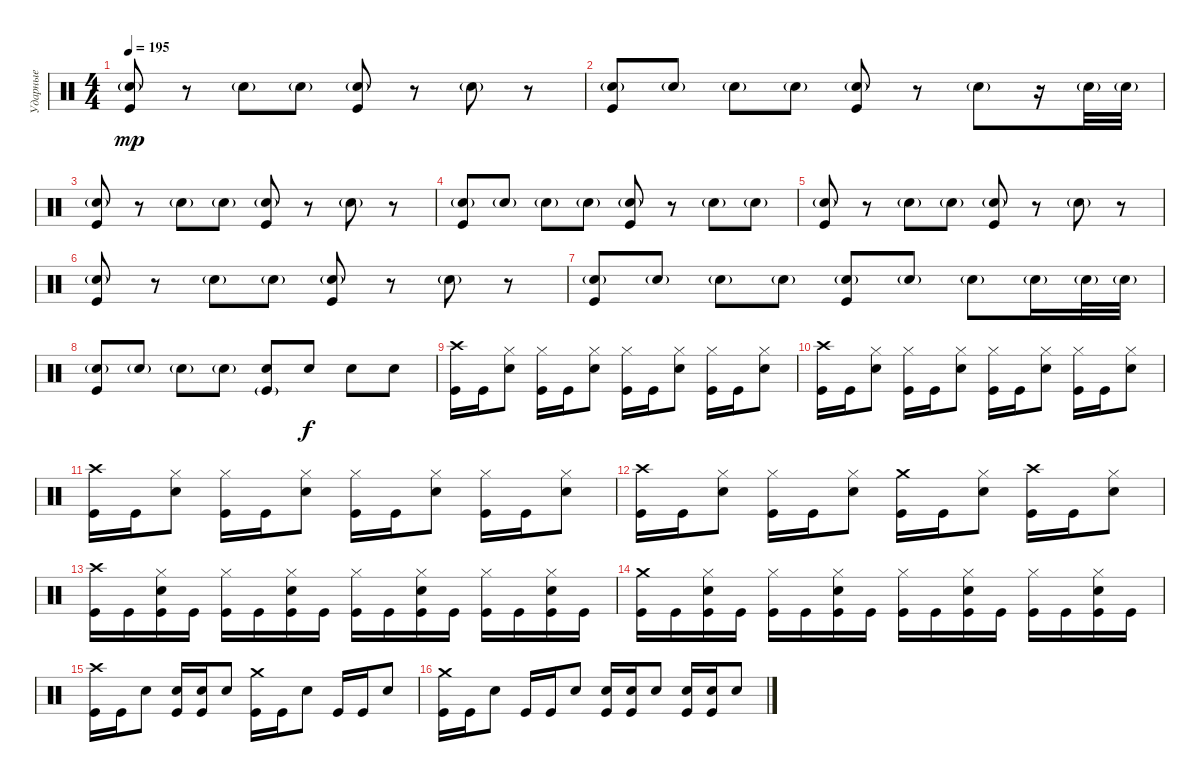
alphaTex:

\track ("Ударные" "Ударные") {instrument percussion}
\staff {score}
\articulation defaults
\ts (4 4)
\tempo 195
\clef neutral
\ks c
("Electric Snare (hit)"{g} "Kick (hit)").8{dy mp} r.8 "Electric Snare (hit)"{g}.8 "Electric Snare (hit)"{g}.8 ("Electric Snare (hit)"{g} "Kick (hit)").8 r.8 "Electric Snare (hit)"{g}.8 r.8 |
("Electric Snare (hit)"{g} "Kick (hit)").8 "Electric Snare (hit)"{g}.8 "Electric Snare (hit)"{g}.8 "Electric Snare (hit)"{g}.8 ("Electric Snare (hit)"{g} "Kick (hit)").8 r.8 "Electric Snare (hit)"{g}.8 r.16 "Electric Snare (hit)"{g}.32 "Electric Snare (hit)"{g}.32 |
("Electric Snare (hit)"{g} "Kick (hit)").8 r.8 "Electric Snare (hit)"{g}.8 "Electric Snare (hit)"{g}.8 ("Electric Snare (hit)"{g} "Kick (hit)").8 r.8 "Electric Snare (hit)"{g}.8 r.8 |
("Electric Snare (hit)"{g} "Kick (hit)").8 "Electric Snare (hit)"{g}.8 "Electric Snare (hit)"{g}.8 "Electric Snare (hit)"{g}.8 ("Electric Snare (hit)"{g} "Kick (hit)").8 r.8 "Electric Snare (hit)"{g}.8 "Electric Snare (hit)"{g}.8 |
("Electric Snare (hit)"{g} "Kick (hit)").8 r.8 "Electric Snare (hit)"{g}.8 "Electric Snare (hit)"{g}.8 ("Electric Snare (hit)"{g} "Kick (hit)").8 r.8 "Electric Snare (hit)"{g}.8 r.8 |
("Electric Snare (hit)"{g} "Kick (hit)").8 r.8 "Electric Snare (hit)"{g}.8 "Electric Snare (hit)"{g}.8 ("Electric Snare (hit)"{g} "Kick (hit)").8 r.8 "Electric Snare (hit)"{g}.8 r.8 |
("Electric Snare (hit)"{g} "Kick (hit)").8 "Electric Snare (hit)"{g}.8 "Electric Snare (hit)"{g}.8 "Electric Snare (hit)"{g}.8 ("Electric Snare (hit)"{g} "Kick (hit)").8 "Electric Snare (hit)"{g}.8 "Electric Snare (hit)"{g}.8 "Electric Snare (hit)"{g}.16 "Electric Snare (hit)"{g}.32 "Electric Snare (hit)"{g}.32 |
("Electric Snare (hit)"{g} "Kick (hit)").8 "Electric Snare (hit)"{g}.8 "Electric Snare (hit)"{g}.8 "Electric Snare (hit)"{g}.8 ("Electric Snare (hit)" "Kick (hit)"{g}).8 "Electric Snare (hit)".8{dy f} "Electric Snare (hit)".8 "Electric Snare (hit)".8 |
("Crash high (hit)" "Kick (hit)").16 "Kick (hit)".16 ("Hi-Hat (closed)" "Electric Snare (hit)").8 ("Hi-Hat (closed)" "Kick (hit)").16 "Kick (hit)".16 ("Hi-Hat (closed)" "Electric Snare (hit)").8 ("Hi-Hat (closed)" "Kick (hit)").16 "Kick (hit)".16 ("Hi-Hat (closed)" "Electric Snare (hit)").8 ("Hi-Hat (closed)" "Kick (hit)").16 "Kick (hit)".16 ("Hi-Hat (closed)" "Electric Snare (hit)").8 |
("Crash high (hit)" "Kick (hit)").16 "Kick (hit)".16 ("Hi-Hat (closed)" "Electric Snare (hit)").8 ("Hi-Hat (closed)" "Kick (hit)").16 "Kick (hit)".16 ("Hi-Hat (closed)" "Electric Snare (hit)").8 ("Hi-Hat (closed)" "Kick (hit)").16 "Kick (hit)".16 ("Hi-Hat (closed)" "Electric Snare (hit)").8 ("Hi-Hat (closed)" "Kick (hit)").16 "Kick (hit)".16 ("Hi-Hat (closed)" "Electric Snare (hit)").8 |
("Crash high (hit)" "Kick (hit)").16 "Kick (hit)".16 ("Hi-Hat (closed)" "Electric Snare (hit)").8 ("Hi-Hat (closed)" "Kick (hit)").16 "Kick (hit)".16 ("Hi-Hat (closed)" "Electric Snare (hit)").8 ("Hi-Hat (closed)" "Kick (hit)").16 "Kick (hit)".16 ("Hi-Hat (closed)" "Electric Snare (hit)").8 ("Hi-Hat (closed)" "Kick (hit)").16 "Kick (hit)".16 ("Hi-Hat (closed)" "Electric Snare (hit)").8 |
("Crash high (hit)" "Kick (hit)").16 "Kick (hit)".16 ("Hi-Hat (closed)" "Electric Snare (hit)").8 ("Hi-Hat (closed)" "Kick (hit)").16 "Kick (hit)".16 ("Hi-Hat (closed)" "Electric Snare (hit)").8 ("Crash medium (hit)" "Kick (hit)").16 "Kick (hit)".16 ("Hi-Hat (closed)" "Electric Snare (hit)").8 ("Crash high (hit)" "Kick (hit)").16 "Kick (hit)".16 ("Hi-Hat (closed)" "Electric Snare (hit)").8 |
("Crash high (hit)" "Kick (hit)").16 "Kick (hit)".16 ("Hi-Hat (closed)" "Electric Snare (hit)" "Kick (hit)").16 "Kick (hit)".16 ("Hi-Hat (closed)" "Kick (hit)").16 "Kick (hit)".16 ("Hi-Hat (closed)" "Electric Snare (hit)" "Kick (hit)").16 "Kick (hit)".16 ("Hi-Hat (closed)" "Kick (hit)").16 "Kick (hit)".16 ("Hi-Hat (closed)" "Electric Snare (hit)" "Kick (hit)").16 "Kick (hit)".16 ("Hi-Hat (closed)" "Kick (hit)").16 "Kick (hit)".16 ("Hi-Hat (closed)" "Electric Snare (hit)" "Kick (hit)").16 "Kick (hit)".16 |
("Crash medium (hit)" "Kick (hit)").16 "Kick (hit)".16 ("Hi-Hat (closed)" "Electric Snare (hit)" "Kick (hit)").16 "Kick (hit)".16 ("Hi-Hat (closed)" "Kick (hit)").16 "Kick (hit)".16 ("Hi-Hat (closed)" "Electric Snare (hit)" "Kick (hit)").16 "Kick (hit)".16 ("Hi-Hat (closed)" "Kick (hit)").16 "Kick (hit)".16 ("Hi-Hat (closed)" "Electric Snare (hit)" "Kick (hit)").16 "Kick (hit)".16 ("Hi-Hat (closed)" "Kick (hit)").16 "Kick (hit)".16 ("Hi-Hat (closed)" "Electric Snare (hit)" "Kick (hit)").16 "Kick (hit)".16 |
("Crash high (hit)" "Kick (hit)").16 "Kick (hit)".16 "Electric Snare (hit)".8 ("Electric Snare (hit)" "Kick (hit)").16 ("Electric Snare (hit)" "Kick (hit)").16 "Electric Snare (hit)".8 ("Crash medium (hit)" "Kick (hit)").16 "Kick (hit)".16 "Electric Snare (hit)".8 "Kick (hit)".16 "Kick (hit)".16 "Electric Snare (hit)".8 |
("Crash medium (hit)" "Kick (hit)").16 "Kick (hit)".16 "Electric Snare (hit)".8 "Kick (hit)".16 "Kick (hit)".16 "Electric Snare (hit)".8 ("Electric Snare (hit)" "Kick (hit)").16 ("Electric Snare (hit)" "Kick (hit)").16 "Electric Snare (hit)".8 ("Electric Snare (hit)" "Kick (hit)").16 ("Electric Snare (hit)" "Kick (hit)").16 "Electric Snare (hit)".8
